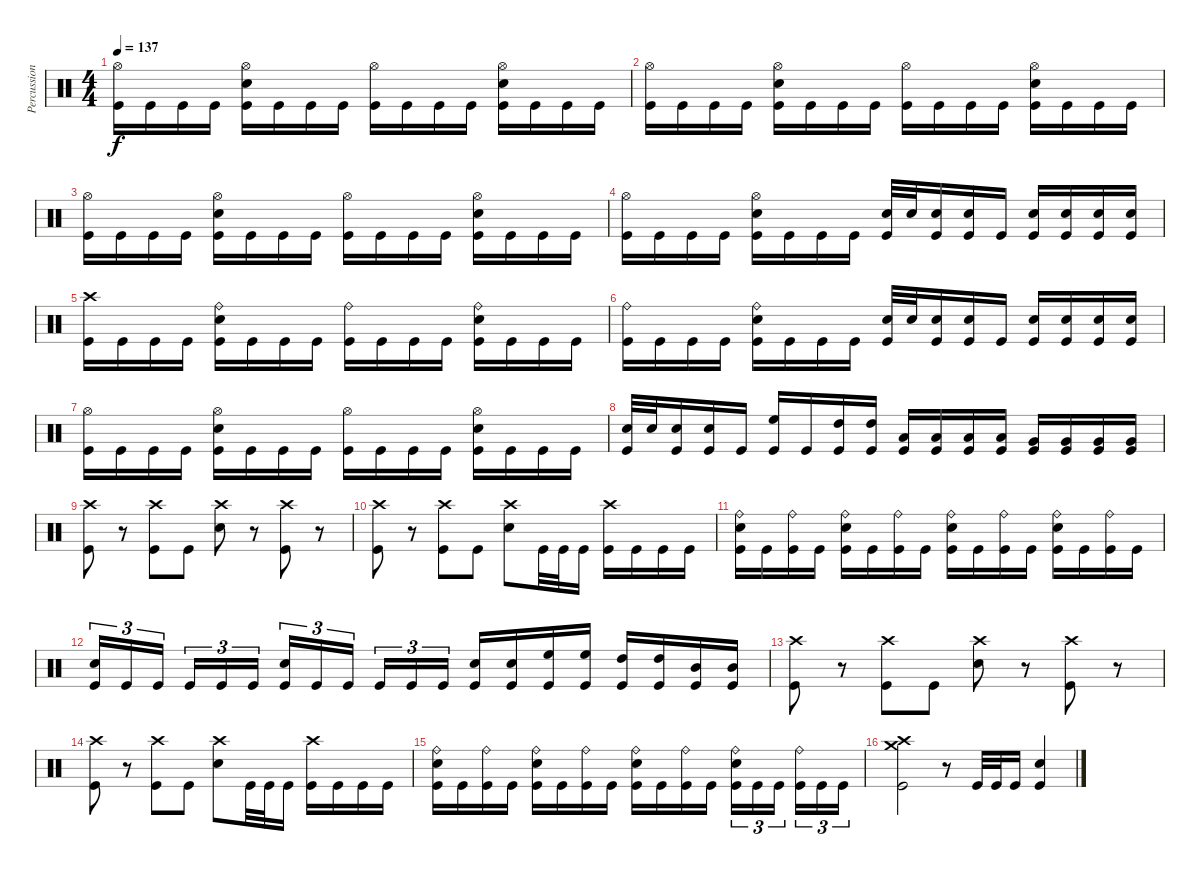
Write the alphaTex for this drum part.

\track ("Percussion" "Percussion") {instrument percussion}
\staff {score}
\articulation defaults
\ts (4 4)
\tempo 137
\clef neutral
\ks c
("Hi-Hat (open)" "Kick (hit)").16{dy f} "Kick (hit)".16 "Kick (hit)".16 "Kick (hit)".16 ("Hi-Hat (open)" "Snare (hit) 2" "Kick (hit)").16 "Kick (hit)".16 "Kick (hit)".16 "Kick (hit)".16 ("Hi-Hat (open)" "Kick (hit)").16 "Kick (hit)".16 "Kick (hit)".16 "Kick (hit)".16 ("Hi-Hat (open)" "Snare (hit) 2" "Kick (hit)").16 "Kick (hit)".16 "Kick (hit)".16 "Kick (hit)".16 |
("Hi-Hat (open)" "Kick (hit)").16 "Kick (hit)".16 "Kick (hit)".16 "Kick (hit)".16 ("Hi-Hat (open)" "Snare (hit) 2" "Kick (hit)").16 "Kick (hit)".16 "Kick (hit)".16 "Kick (hit)".16 ("Hi-Hat (open)" "Kick (hit)").16 "Kick (hit)".16 "Kick (hit)".16 "Kick (hit)".16 ("Hi-Hat (open)" "Snare (hit) 2" "Kick (hit)").16 "Kick (hit)".16 "Kick (hit)".16 "Kick (hit)".16 |
("Hi-Hat (open)" "Kick (hit)").16 "Kick (hit)".16 "Kick (hit)".16 "Kick (hit)".16 ("Hi-Hat (open)" "Snare (hit) 2" "Kick (hit)").16 "Kick (hit)".16 "Kick (hit)".16 "Kick (hit)".16 ("Hi-Hat (open)" "Kick (hit)").16 "Kick (hit)".16 "Kick (hit)".16 "Kick (hit)".16 ("Hi-Hat (open)" "Snare (hit) 2" "Kick (hit)").16 "Kick (hit)".16 "Kick (hit)".16 "Kick (hit)".16 |
("Hi-Hat (open)" "Kick (hit)").16 "Kick (hit)".16 "Kick (hit)".16 "Kick (hit)".16 ("Hi-Hat (open)" "Snare (hit) 2" "Kick (hit)").16 "Kick (hit)".16 "Kick (hit)".16 "Kick (hit)".16 ("Snare (hit) 2" "Kick (hit)").32 "Snare (hit) 2".32 ("Snare (hit) 2" "Kick (hit)").16 ("Snare (hit) 2" "Kick (hit)").16 "Kick (hit)".16 ("Snare (hit) 2" "Kick (hit)").16 ("Snare (hit) 2" "Kick (hit)").16 ("Snare (hit) 2" "Kick (hit)").16 ("Snare (hit) 2" "Kick (hit)").16 |
("Crash high (hit)" "Kick (hit)").16 "Kick (hit)".16 "Kick (hit)".16 "Kick (hit)".16 ("Ride (bell)" "Snare (hit) 2" "Kick (hit)").16 "Kick (hit)".16 "Kick (hit)".16 "Kick (hit)".16 ("Ride (bell)" "Kick (hit)").16 "Kick (hit)".16 "Kick (hit)".16 "Kick (hit)".16 ("Ride (bell)" "Snare (hit) 2" "Kick (hit)").16 "Kick (hit)".16 "Kick (hit)".16 "Kick (hit)".16 |
("Ride (bell)" "Kick (hit)").16 "Kick (hit)".16 "Kick (hit)".16 "Kick (hit)".16 ("Ride (bell)" "Snare (hit) 2" "Kick (hit)").16 "Kick (hit)".16 "Kick (hit)".16 "Kick (hit)".16 ("Snare (hit) 2" "Kick (hit)").32 "Snare (hit) 2".32 ("Snare (hit) 2" "Kick (hit)").16 ("Snare (hit) 2" "Kick (hit)").16 "Kick (hit)".16 ("Snare (hit) 2" "Kick (hit)").16 ("Snare (hit) 2" "Kick (hit)").16 ("Snare (hit) 2" "Kick (hit)").16 ("Snare (hit) 2" "Kick (hit)").16 |
("Hi-Hat (open)" "Kick (hit)").16 "Kick (hit)".16 "Kick (hit)".16 "Kick (hit)".16 ("Hi-Hat (open)" "Snare (hit) 2" "Kick (hit)").16 "Kick (hit)".16 "Kick (hit)".16 "Kick (hit)".16 ("Hi-Hat (open)" "Kick (hit)").16 "Kick (hit)".16 "Kick (hit)".16 "Kick (hit)".16 ("Hi-Hat (open)" "Snare (hit) 2" "Kick (hit)").16 "Kick (hit)".16 "Kick (hit)".16 "Kick (hit)".16 |
("Snare (hit) 2" "Kick (hit)").32 "Snare (hit) 2".32 ("Snare (hit) 2" "Kick (hit)").16 ("Snare (hit) 2" "Kick (hit)").16 "Kick (hit)".16 ("High Floor Tom (hit)" "Kick (hit)").16 "Kick (hit)".16 ("High Tom (hit)" "Kick (hit)").16 ("High Tom (hit)" "Kick (hit)").16 ("Low Tom (hit)" "Kick (hit)").16 ("Low Tom (hit)" "Kick (hit)").16 ("Low Tom (hit)" "Kick (hit)").16 ("Low Tom (hit)" "Kick (hit)").16 ("Very Low Tom (hit)" "Kick (hit)").16 ("Very Low Tom (hit)" "Kick (hit)").16 ("Very Low Tom (hit)" "Kick (hit)").16 ("Very Low Tom (hit)" "Kick (hit)").16 |
("Crash high (hit)" "Kick (hit)").8 r.8 ("Crash high (hit)" "Kick (hit)").8 "Kick (hit)".8 ("Crash high (hit)" "Snare (hit) 2").8 r.8 ("Crash high (hit)" "Kick (hit)").8 r.8 |
("Crash high (hit)" "Kick (hit)").8 r.8 ("Crash high (hit)" "Kick (hit)").8 "Kick (hit)".8 ("Crash high (hit)" "Snare (hit) 2").8 "Kick (hit)".32 "Kick (hit)".32 "Kick (hit)".16 ("Crash high (hit)" "Kick (hit)").16 "Kick (hit)".16 "Kick (hit)".16 "Kick (hit)".16 |
("Ride (bell)" "Snare (hit) 2" "Kick (hit)").16 "Kick (hit)".16 ("Ride (bell)" "Kick (hit)").16 "Kick (hit)".16 ("Ride (bell)" "Snare (hit) 2" "Kick (hit)").16 "Kick (hit)".16 ("Ride (bell)" "Kick (hit)").16 "Kick (hit)".16 ("Ride (bell)" "Snare (hit) 2" "Kick (hit)").16 "Kick (hit)".16 ("Ride (bell)" "Kick (hit)").16 "Kick (hit)".16 ("Ride (bell)" "Snare (hit) 2" "Kick (hit)").16 "Kick (hit)".16 ("Ride (bell)" "Kick (hit)").16 "Kick (hit)".16 |
("Snare (hit) 2" "Kick (hit)").16{tu (3 2)} "Kick (hit)".16{tu (3 2)} "Kick (hit)".16{tu (3 2) beam splitsecondary} "Kick (hit)".16{tu (3 2)} "Kick (hit)".16{tu (3 2)} "Kick (hit)".16{tu (3 2)} ("Snare (hit) 2" "Kick (hit)").16{tu (3 2)} "Kick (hit)".16{tu (3 2)} "Kick (hit)".16{tu (3 2) beam splitsecondary} "Kick (hit)".16{tu (3 2)} "Kick (hit)".16{tu (3 2)} "Kick (hit)".16{tu (3 2)} ("Snare (hit) 2" "Kick (hit)").16 ("Snare (hit) 2" "Kick (hit)").16 ("High Floor Tom (hit)" "Kick (hit)").16 ("High Floor Tom (hit)" "Kick (hit)").16 ("High Tom (hit)" "Kick (hit)").16 ("High Tom (hit)" "Kick (hit)").16 ("Mid Tom (hit)" "Kick (hit)").16 ("Mid Tom (hit)" "Kick (hit)").16 |
("Crash high (hit)" "Kick (hit)").8 r.8 ("Crash high (hit)" "Kick (hit)").8 "Kick (hit)".8 ("Crash high (hit)" "Snare (hit) 2").8 r.8 ("Crash high (hit)" "Kick (hit)").8 r.8 |
("Crash high (hit)" "Kick (hit)").8 r.8 ("Crash high (hit)" "Kick (hit)").8 "Kick (hit)".8 ("Crash high (hit)" "Snare (hit) 2").8 "Kick (hit)".32 "Kick (hit)".32 "Kick (hit)".16 ("Crash high (hit)" "Kick (hit)").16 "Kick (hit)".16 "Kick (hit)".16 "Kick (hit)".16 |
("Ride (bell)" "Snare (hit) 2" "Kick (hit)").16 "Kick (hit)".16 ("Ride (bell)" "Kick (hit)").16 "Kick (hit)".16 ("Ride (bell)" "Snare (hit) 2" "Kick (hit)").16 "Kick (hit)".16 ("Ride (bell)" "Kick (hit)").16 "Kick (hit)".16 ("Ride (bell)" "Snare (hit) 2" "Kick (hit)").16 "Kick (hit)".16 ("Ride (bell)" "Kick (hit)").16 "Kick (hit)".16 ("Ride (bell)" "Snare (hit) 2" "Kick (hit)").16{tu (3 2)} "Kick (hit)".16{tu (3 2)} "Kick (hit)".16{tu (3 2) beam splitsecondary} ("Ride (bell)" "Kick (hit)").16{tu (3 2)} "Kick (hit)".16{tu (3 2)} "Kick (hit)".16{tu (3 2)} |
("Crash medium (hit)" "Crash high (hit)" "Kick (hit)").2 r.8 "Kick (hit)".32 "Kick (hit)".32 "Kick (hit)".16 ("Snare (hit) 2" "Kick (hit)").4
